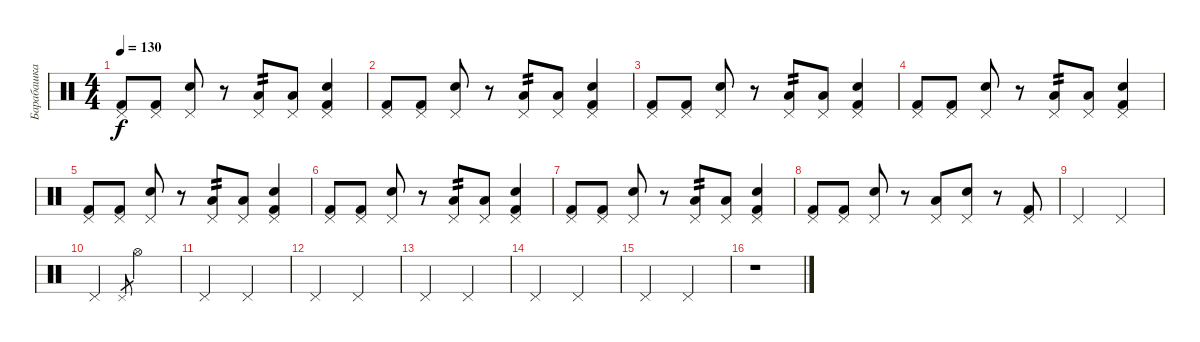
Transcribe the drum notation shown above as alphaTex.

\track ("Барабашка" "Барабашка") {instrument percussion}
\staff {score}
\articulation defaults
\ts (4 4)
\tempo 130
\clef neutral
\ks c
("Pedal Hi-Hat (hit)" "Kick (hit) 2").8{dy f} ("Pedal Hi-Hat (hit)" "Kick (hit) 2").8 ("Snare (hit) 2" "Pedal Hi-Hat (hit)").8 r.8 ("Low Tom (hit)" "Pedal Hi-Hat (hit)").8{tp 2} ("Low Tom (hit)" "Pedal Hi-Hat (hit)").8 ("Snare (hit) 2" "Pedal Hi-Hat (hit)" "Kick (hit) 2").4 |
("Pedal Hi-Hat (hit)" "Kick (hit) 2").8 ("Pedal Hi-Hat (hit)" "Kick (hit) 2").8 ("Snare (hit) 2" "Pedal Hi-Hat (hit)").8 r.8 ("Low Tom (hit)" "Pedal Hi-Hat (hit)").8{tp 2} ("Low Tom (hit)" "Pedal Hi-Hat (hit)").8 ("Snare (hit) 2" "Pedal Hi-Hat (hit)" "Kick (hit) 2").4 |
("Pedal Hi-Hat (hit)" "Kick (hit) 2").8 ("Pedal Hi-Hat (hit)" "Kick (hit) 2").8 ("Snare (hit) 2" "Pedal Hi-Hat (hit)").8 r.8 ("Low Tom (hit)" "Pedal Hi-Hat (hit)").8{tp 2} ("Low Tom (hit)" "Pedal Hi-Hat (hit)").8 ("Snare (hit) 2" "Pedal Hi-Hat (hit)" "Kick (hit) 2").4 |
("Pedal Hi-Hat (hit)" "Kick (hit) 2").8 ("Pedal Hi-Hat (hit)" "Kick (hit) 2").8 ("Snare (hit) 2" "Pedal Hi-Hat (hit)").8 r.8 ("Low Tom (hit)" "Pedal Hi-Hat (hit)").8{tp 2} ("Low Tom (hit)" "Pedal Hi-Hat (hit)").8 ("Snare (hit) 2" "Pedal Hi-Hat (hit)" "Kick (hit) 2").4 |
("Pedal Hi-Hat (hit)" "Kick (hit) 2").8 ("Pedal Hi-Hat (hit)" "Kick (hit) 2").8 ("Snare (hit) 2" "Pedal Hi-Hat (hit)").8 r.8 ("Low Tom (hit)" "Pedal Hi-Hat (hit)").8{tp 2} ("Low Tom (hit)" "Pedal Hi-Hat (hit)").8 ("Snare (hit) 2" "Pedal Hi-Hat (hit)" "Kick (hit) 2").4 |
("Pedal Hi-Hat (hit)" "Kick (hit) 2").8 ("Pedal Hi-Hat (hit)" "Kick (hit) 2").8 ("Snare (hit) 2" "Pedal Hi-Hat (hit)").8 r.8 ("Low Tom (hit)" "Pedal Hi-Hat (hit)").8{tp 2} ("Low Tom (hit)" "Pedal Hi-Hat (hit)").8 ("Snare (hit) 2" "Pedal Hi-Hat (hit)" "Kick (hit) 2").4 |
("Pedal Hi-Hat (hit)" "Kick (hit) 2").8 ("Pedal Hi-Hat (hit)" "Kick (hit) 2").8 ("Snare (hit) 2" "Pedal Hi-Hat (hit)").8 r.8 ("Low Tom (hit)" "Pedal Hi-Hat (hit)").8{tp 2} ("Low Tom (hit)" "Pedal Hi-Hat (hit)").8 ("Snare (hit) 2" "Pedal Hi-Hat (hit)" "Kick (hit) 2").4 |
("Pedal Hi-Hat (hit)" "Kick (hit) 2").8 ("Pedal Hi-Hat (hit)" "Kick (hit) 2").8 ("Snare (hit) 2" "Pedal Hi-Hat (hit)").8 r.8 ("Low Tom (hit)" "Pedal Hi-Hat (hit)").8 ("Snare (hit) 2" "Pedal Hi-Hat (hit)").8 r.8 ("Pedal Hi-Hat (hit)" "Kick (hit) 2").8 |
"Pedal Hi-Hat (hit)".2 "Pedal Hi-Hat (hit)".2 |
"Pedal Hi-Hat (hit)".2 "Pedal Hi-Hat (hit)".8{gr} "Hi-Hat (open)".2 |
"Pedal Hi-Hat (hit)".2 "Pedal Hi-Hat (hit)".2 |
"Pedal Hi-Hat (hit)".2{volume 0} "Pedal Hi-Hat (hit)".2 |
"Pedal Hi-Hat (hit)".2 "Pedal Hi-Hat (hit)".2 |
"Pedal Hi-Hat (hit)".2 "Pedal Hi-Hat (hit)".2 |
"Pedal Hi-Hat (hit)".2 "Pedal Hi-Hat (hit)".2 |
r.1
